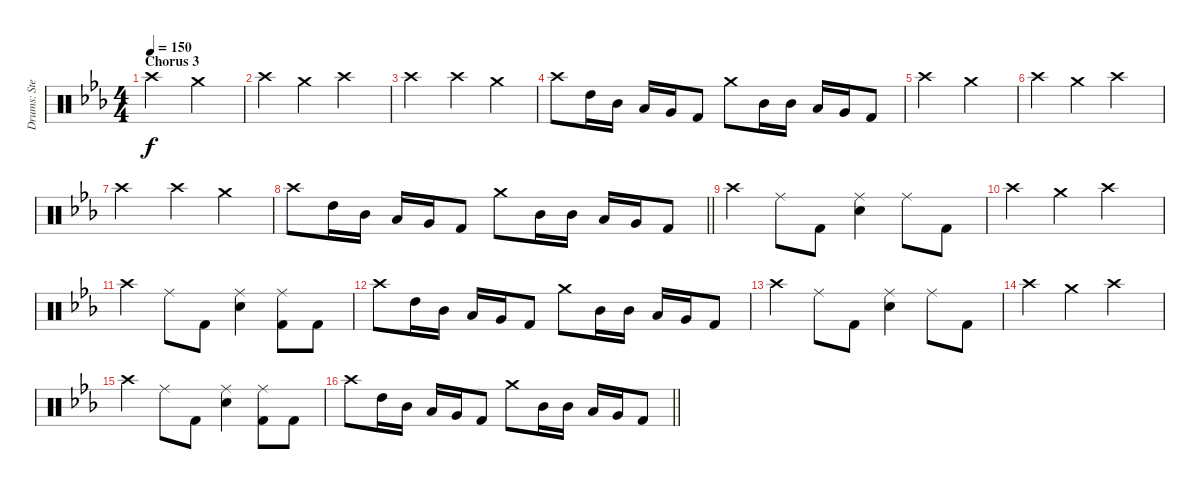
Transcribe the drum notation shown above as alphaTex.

\track ("Drums: Stefan Svantesson" "Drums: Ste") {instrument percussion}
\staff {score}
\articulation defaults
\ts (4 4)
\section ("" "Chorus 3")
\tempo 150
\clef neutral
\ks cminor "Crash high (hit)".2{dy f} "Crash medium (hit)".2
|
"Crash high (hit)".4 "Crash medium (hit)".4 "Crash high (hit)".2 |
"Crash high (hit)".2 "Crash high (hit)".4 "Crash medium (hit)".4 |
"Crash high (hit)".8 "High Tom (hit)".16 "Mid Tom (hit)".16 "Low Tom (hit)".16 "Very Low Tom (hit)".16 "Kick (hit) 2".8 "Crash medium (hit)".8 "Mid Tom (hit)".16 "Mid Tom (hit)".16 "Low Tom (hit)".16 "Very Low Tom (hit)".16 "Kick (hit) 2".8 |
"Crash high (hit)".2 "Crash medium (hit)".2 |
"Crash high (hit)".4 "Crash medium (hit)".4 "Crash high (hit)".2 |
"Crash high (hit)".2 "Crash high (hit)".4 "Crash medium (hit)".4 |
\barLineRight lightlight "Crash high (hit)".8 "High Tom (hit)".16 "Mid Tom (hit)".16 "Low Tom (hit)".16 "Very Low Tom (hit)".16 "Kick (hit) 2".8 "Crash medium (hit)".8 "Mid Tom (hit)".16 "Mid Tom (hit)".16 "Low Tom (hit)".16 "Very Low Tom (hit)".16 "Kick (hit) 2".8
|
"Crash high (hit)".4 "Ride (middle)".8 "Kick (hit) 2".8 ("Ride (middle)" "Electric Snare (hit)").4 "Ride (middle)".8 "Kick (hit) 2".8 |
"Crash high (hit)".4 "Crash medium (hit)".4 "Crash high (hit)".2 |
"Crash high (hit)".4 "Ride (middle)".8 "Kick (hit) 2".8 ("Ride (middle)" "Electric Snare (hit)").4 ("Ride (middle)" "Kick (hit) 2").8 "Kick (hit) 2".8 |
"Crash high (hit)".8 "High Tom (hit)".16 "Mid Tom (hit)".16 "Low Tom (hit)".16 "Very Low Tom (hit)".16 "Kick (hit) 2".8 "Crash medium (hit)".8 "Mid Tom (hit)".16 "Mid Tom (hit)".16 "Low Tom (hit)".16 "Very Low Tom (hit)".16 "Kick (hit) 2".8 |
"Crash high (hit)".4 "Ride (middle)".8 "Kick (hit) 2".8 ("Ride (middle)" "Electric Snare (hit)").4 "Ride (middle)".8 "Kick (hit) 2".8 |
"Crash high (hit)".4 "Crash medium (hit)".4 "Crash high (hit)".2 |
"Crash high (hit)".4 "Ride (middle)".8 "Kick (hit) 2".8 ("Ride (middle)" "Electric Snare (hit)").4 ("Ride (middle)" "Kick (hit) 2").8 "Kick (hit) 2".8 |
\barLineRight lightlight "Crash high (hit)".8 "High Tom (hit)".16 "Mid Tom (hit)".16 "Low Tom (hit)".16 "Very Low Tom (hit)".16 "Kick (hit) 2".8 "Crash medium (hit)".8 "Mid Tom (hit)".16 "Mid Tom (hit)".16 "Low Tom (hit)".16 "Very Low Tom (hit)".16 "Kick (hit) 2".8
